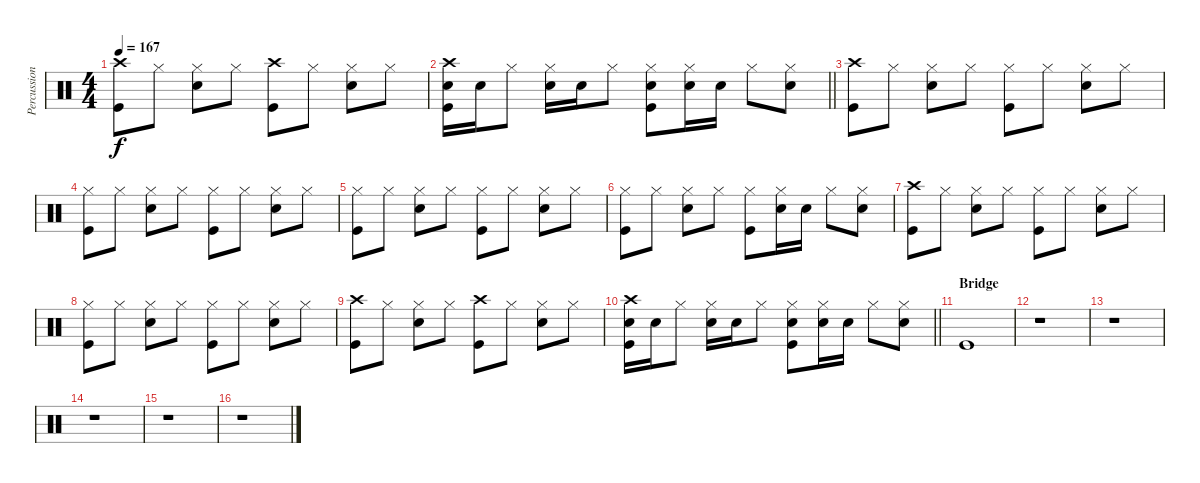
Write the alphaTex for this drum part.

\track ("Percussion" "Percussion") {instrument percussion}
\staff {score}
\articulation defaults
\ts (4 4)
\tempo 167
\clef neutral
\ks c
("Crash high (hit)" "Kick (hit)").8{dy f} "Hi-Hat (closed)".8 ("Hi-Hat (closed)" "Electric Snare (hit)").8 "Hi-Hat (closed)".8 ("Crash high (hit)" "Kick (hit)").8 "Hi-Hat (closed)".8 ("Hi-Hat (closed)" "Electric Snare (hit)").8 "Hi-Hat (closed)".8 |
\barLineRight lightlight
("Crash high (hit)" "Electric Snare (hit)" "Kick (hit)").16 "Electric Snare (hit)".16 "Hi-Hat (closed)".8 ("Hi-Hat (closed)" "Electric Snare (hit)").16 "Electric Snare (hit)".16 "Hi-Hat (closed)".8 ("Hi-Hat (closed)" "Electric Snare (hit)" "Kick (hit)").8 ("Hi-Hat (closed)" "Electric Snare (hit)").16 "Electric Snare (hit)".16 "Hi-Hat (closed)".8 ("Hi-Hat (closed)" "Electric Snare (hit)").8 |
("Crash high (hit)" "Kick (hit)").8 "Hi-Hat (closed)".8 ("Hi-Hat (closed)" "Electric Snare (hit)").8 "Hi-Hat (closed)".8 ("Hi-Hat (closed)" "Kick (hit)").8 "Hi-Hat (closed)".8 ("Hi-Hat (closed)" "Electric Snare (hit)").8 "Hi-Hat (closed)".8 |
("Hi-Hat (closed)" "Kick (hit)").8 "Hi-Hat (closed)".8 ("Hi-Hat (closed)" "Electric Snare (hit)").8 "Hi-Hat (closed)".8 ("Hi-Hat (closed)" "Kick (hit)").8 "Hi-Hat (closed)".8 ("Hi-Hat (closed)" "Electric Snare (hit)").8 "Hi-Hat (closed)".8 |
("Hi-Hat (closed)" "Kick (hit)").8 "Hi-Hat (closed)".8 ("Hi-Hat (closed)" "Electric Snare (hit)").8 "Hi-Hat (closed)".8 ("Hi-Hat (closed)" "Kick (hit)").8 "Hi-Hat (closed)".8 ("Hi-Hat (closed)" "Electric Snare (hit)").8 "Hi-Hat (closed)".8 |
("Hi-Hat (closed)" "Kick (hit)").8 "Hi-Hat (closed)".8 ("Hi-Hat (closed)" "Electric Snare (hit)").8 "Hi-Hat (closed)".8 ("Hi-Hat (closed)" "Kick (hit)").8 ("Hi-Hat (closed)" "Electric Snare (hit)").16 "Electric Snare (hit)".16 "Hi-Hat (closed)".8 ("Hi-Hat (closed)" "Electric Snare (hit)").8 |
("Crash high (hit)" "Kick (hit)").8 "Hi-Hat (closed)".8 ("Hi-Hat (closed)" "Electric Snare (hit)").8 "Hi-Hat (closed)".8 ("Hi-Hat (closed)" "Kick (hit)").8 "Hi-Hat (closed)".8 ("Hi-Hat (closed)" "Electric Snare (hit)").8 "Hi-Hat (closed)".8 |
("Hi-Hat (closed)" "Kick (hit)").8 "Hi-Hat (closed)".8 ("Hi-Hat (closed)" "Electric Snare (hit)").8 "Hi-Hat (closed)".8 ("Hi-Hat (closed)" "Kick (hit)").8 "Hi-Hat (closed)".8 ("Hi-Hat (closed)" "Electric Snare (hit)").8 "Hi-Hat (closed)".8 |
("Crash high (hit)" "Kick (hit)").8 "Hi-Hat (closed)".8 ("Hi-Hat (closed)" "Electric Snare (hit)").8 "Hi-Hat (closed)".8 ("Crash high (hit)" "Kick (hit)").8 "Hi-Hat (closed)".8 ("Hi-Hat (closed)" "Electric Snare (hit)").8 "Hi-Hat (closed)".8 |
\barLineRight lightlight
("Crash high (hit)" "Electric Snare (hit)" "Kick (hit)").16 "Electric Snare (hit)".16 "Hi-Hat (closed)".8 ("Hi-Hat (closed)" "Electric Snare (hit)").16 "Electric Snare (hit)".16 "Hi-Hat (closed)".8 ("Hi-Hat (closed)" "Electric Snare (hit)" "Kick (hit)").8 ("Hi-Hat (closed)" "Electric Snare (hit)").16 "Electric Snare (hit)".16 "Hi-Hat (closed)".8 ("Hi-Hat (closed)" "Electric Snare (hit)").8 |
\section ("" "Bridge")
"Kick (hit)".1 |
r.1 |
r.1 |
r.1 |
r.1 |
r.1
